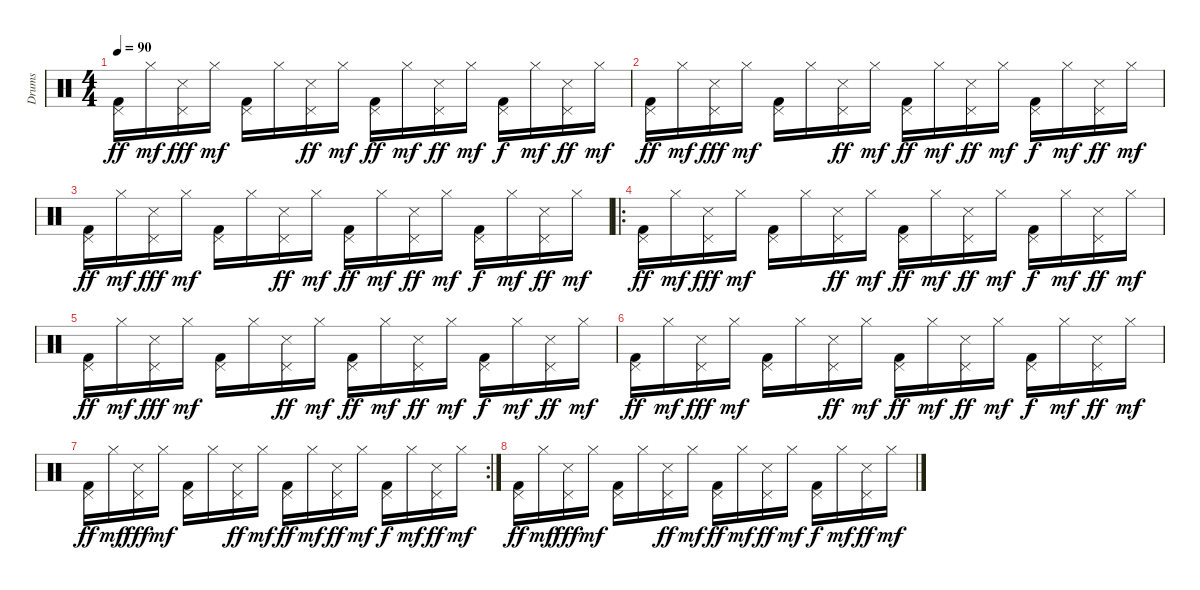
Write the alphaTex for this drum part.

\track ("Drums" "Drums") {instrument percussion}
\staff {score}
\articulation defaults
\ts (4 4)
\tempo 90
\clef neutral
\ks c
("Pedal Hi-Hat (hit)" "Kick (hit) 2").16{dy ff} "Hi-Hat (closed)".16{dy mf} ("Pedal Hi-Hat (hit)" "Snare (side stick) 3").16{dy fff} "Hi-Hat (closed)".16{dy mf} ("Pedal Hi-Hat (hit)" "Kick (hit) 2").16 "Hi-Hat (closed)".16 ("Pedal Hi-Hat (hit)" "Snare (side stick) 3").16{dy ff} "Hi-Hat (closed)".16{dy mf} ("Pedal Hi-Hat (hit)" "Kick (hit) 2").16{dy ff} "Hi-Hat (closed)".16{dy mf} ("Pedal Hi-Hat (hit)" "Snare (side stick) 3").16{dy ff} "Hi-Hat (closed)".16{dy mf} ("Pedal Hi-Hat (hit)" "Kick (hit) 2").16{dy f} "Hi-Hat (closed)".16{dy mf} ("Pedal Hi-Hat (hit)" "Snare (side stick) 3").16{dy ff} "Hi-Hat (closed)".16{dy mf} |
("Pedal Hi-Hat (hit)" "Kick (hit) 2").16{dy ff} "Hi-Hat (closed)".16{dy mf} ("Pedal Hi-Hat (hit)" "Snare (side stick) 3").16{dy fff} "Hi-Hat (closed)".16{dy mf} ("Pedal Hi-Hat (hit)" "Kick (hit) 2").16 "Hi-Hat (closed)".16 ("Pedal Hi-Hat (hit)" "Snare (side stick) 3").16{dy ff} "Hi-Hat (closed)".16{dy mf} ("Pedal Hi-Hat (hit)" "Kick (hit) 2").16{dy ff} "Hi-Hat (closed)".16{dy mf} ("Pedal Hi-Hat (hit)" "Snare (side stick) 3").16{dy ff} "Hi-Hat (closed)".16{dy mf} ("Pedal Hi-Hat (hit)" "Kick (hit) 2").16{dy f} "Hi-Hat (closed)".16{dy mf} ("Pedal Hi-Hat (hit)" "Snare (side stick) 3").16{dy ff} "Hi-Hat (closed)".16{dy mf} |
("Pedal Hi-Hat (hit)" "Kick (hit) 2").16{dy ff} "Hi-Hat (closed)".16{dy mf} ("Pedal Hi-Hat (hit)" "Snare (side stick) 3").16{dy fff} "Hi-Hat (closed)".16{dy mf} ("Pedal Hi-Hat (hit)" "Kick (hit) 2").16 "Hi-Hat (closed)".16 ("Pedal Hi-Hat (hit)" "Snare (side stick) 3").16{dy ff} "Hi-Hat (closed)".16{dy mf} ("Pedal Hi-Hat (hit)" "Kick (hit) 2").16{dy ff} "Hi-Hat (closed)".16{dy mf} ("Pedal Hi-Hat (hit)" "Snare (side stick) 3").16{dy ff} "Hi-Hat (closed)".16{dy mf} ("Pedal Hi-Hat (hit)" "Kick (hit) 2").16{dy f} "Hi-Hat (closed)".16{dy mf} ("Pedal Hi-Hat (hit)" "Snare (side stick) 3").16{dy ff} "Hi-Hat (closed)".16{dy mf} |
\ro
("Pedal Hi-Hat (hit)" "Kick (hit) 2").16{dy ff} "Hi-Hat (closed)".16{dy mf} ("Pedal Hi-Hat (hit)" "Snare (side stick) 3").16{dy fff} "Hi-Hat (closed)".16{dy mf} ("Pedal Hi-Hat (hit)" "Kick (hit) 2").16 "Hi-Hat (closed)".16 ("Pedal Hi-Hat (hit)" "Snare (side stick) 3").16{dy ff} "Hi-Hat (closed)".16{dy mf} ("Pedal Hi-Hat (hit)" "Kick (hit) 2").16{dy ff} "Hi-Hat (closed)".16{dy mf} ("Pedal Hi-Hat (hit)" "Snare (side stick) 3").16{dy ff} "Hi-Hat (closed)".16{dy mf} ("Pedal Hi-Hat (hit)" "Kick (hit) 2").16{dy f} "Hi-Hat (closed)".16{dy mf} ("Pedal Hi-Hat (hit)" "Snare (side stick) 3").16{dy ff} "Hi-Hat (closed)".16{dy mf} |
("Pedal Hi-Hat (hit)" "Kick (hit) 2").16{dy ff} "Hi-Hat (closed)".16{dy mf} ("Pedal Hi-Hat (hit)" "Snare (side stick) 3").16{dy fff} "Hi-Hat (closed)".16{dy mf} ("Pedal Hi-Hat (hit)" "Kick (hit) 2").16 "Hi-Hat (closed)".16 ("Pedal Hi-Hat (hit)" "Snare (side stick) 3").16{dy ff} "Hi-Hat (closed)".16{dy mf} ("Pedal Hi-Hat (hit)" "Kick (hit) 2").16{dy ff} "Hi-Hat (closed)".16{dy mf} ("Pedal Hi-Hat (hit)" "Snare (side stick) 3").16{dy ff} "Hi-Hat (closed)".16{dy mf} ("Pedal Hi-Hat (hit)" "Kick (hit) 2").16{dy f} "Hi-Hat (closed)".16{dy mf} ("Pedal Hi-Hat (hit)" "Snare (side stick) 3").16{dy ff} "Hi-Hat (closed)".16{dy mf} |
("Pedal Hi-Hat (hit)" "Kick (hit) 2").16{dy ff} "Hi-Hat (closed)".16{dy mf} ("Pedal Hi-Hat (hit)" "Snare (side stick) 3").16{dy fff} "Hi-Hat (closed)".16{dy mf} ("Pedal Hi-Hat (hit)" "Kick (hit) 2").16 "Hi-Hat (closed)".16 ("Pedal Hi-Hat (hit)" "Snare (side stick) 3").16{dy ff} "Hi-Hat (closed)".16{dy mf} ("Pedal Hi-Hat (hit)" "Kick (hit) 2").16{dy ff} "Hi-Hat (closed)".16{dy mf} ("Pedal Hi-Hat (hit)" "Snare (side stick) 3").16{dy ff} "Hi-Hat (closed)".16{dy mf} ("Pedal Hi-Hat (hit)" "Kick (hit) 2").16{dy f} "Hi-Hat (closed)".16{dy mf} ("Pedal Hi-Hat (hit)" "Snare (side stick) 3").16{dy ff} "Hi-Hat (closed)".16{dy mf} |
\rc 2
("Pedal Hi-Hat (hit)" "Kick (hit) 2").16{dy ff} "Hi-Hat (closed)".16{dy mf} ("Pedal Hi-Hat (hit)" "Snare (side stick) 3").16{dy fff} "Hi-Hat (closed)".16{dy mf} ("Pedal Hi-Hat (hit)" "Kick (hit) 2").16 "Hi-Hat (closed)".16 ("Pedal Hi-Hat (hit)" "Snare (side stick) 3").16{dy ff} "Hi-Hat (closed)".16{dy mf} ("Pedal Hi-Hat (hit)" "Kick (hit) 2").16{dy ff} "Hi-Hat (closed)".16{dy mf} ("Pedal Hi-Hat (hit)" "Snare (side stick) 3").16{dy ff} "Hi-Hat (closed)".16{dy mf} ("Pedal Hi-Hat (hit)" "Kick (hit) 2").16{dy f} "Hi-Hat (closed)".16{dy mf} ("Pedal Hi-Hat (hit)" "Snare (side stick) 3").16{dy ff} "Hi-Hat (closed)".16{dy mf} |
("Pedal Hi-Hat (hit)" "Kick (hit) 2").16{dy ff volume 0} "Hi-Hat (closed)".16{dy mf} ("Pedal Hi-Hat (hit)" "Snare (side stick) 3").16{dy fff} "Hi-Hat (closed)".16{dy mf} ("Pedal Hi-Hat (hit)" "Kick (hit) 2").16 "Hi-Hat (closed)".16 ("Pedal Hi-Hat (hit)" "Snare (side stick) 3").16{dy ff} "Hi-Hat (closed)".16{dy mf} ("Pedal Hi-Hat (hit)" "Kick (hit) 2").16{dy ff} "Hi-Hat (closed)".16{dy mf} ("Pedal Hi-Hat (hit)" "Snare (side stick) 3").16{dy ff} "Hi-Hat (closed)".16{dy mf} ("Pedal Hi-Hat (hit)" "Kick (hit) 2").16{dy f} "Hi-Hat (closed)".16{dy mf} ("Pedal Hi-Hat (hit)" "Snare (side stick) 3").16{dy ff} "Hi-Hat (closed)".16{dy mf}
